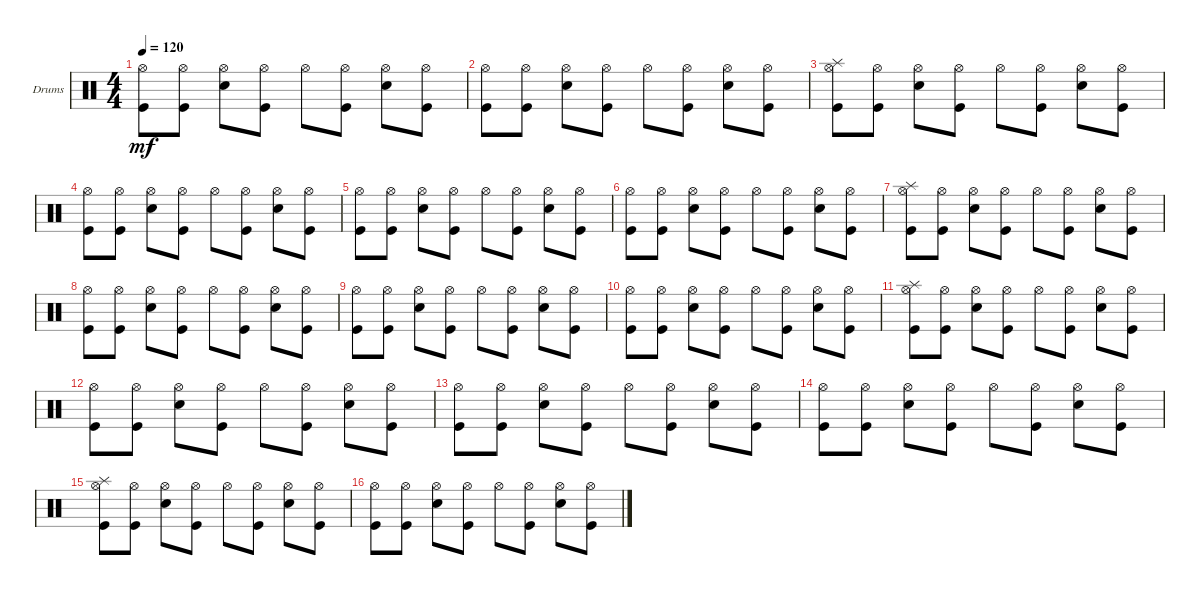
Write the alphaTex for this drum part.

\defaultSystemsLayout 4
\bracketExtendMode groupsimilarinstruments
\firstSystemTrackNameOrientation horizontal
\otherSystemsTrackNameOrientation horizontal
\track ("Drumkit" "Drums") {instrument percussion}
\staff {score}
\articulation defaults
\ts (4 4)
\tempo 120
\clef neutral
\ks c
("Hi-Hat (open)" "Kick (hit)").8{dy mf} ("Hi-Hat (open)" "Kick (hit)").8 ("Hi-Hat (open)" "Snare (hit) 2").8 ("Hi-Hat (open)" "Kick (hit)").8 "Hi-Hat (open)".8 ("Hi-Hat (open)" "Kick (hit)").8 ("Hi-Hat (open)" "Snare (hit) 2").8 ("Hi-Hat (open)" "Kick (hit)").8 |
("Hi-Hat (open)" "Kick (hit)").8 ("Hi-Hat (open)" "Kick (hit)").8 ("Hi-Hat (open)" "Snare (hit) 2").8 ("Hi-Hat (open)" "Kick (hit)").8 "Hi-Hat (open)".8 ("Hi-Hat (open)" "Kick (hit)").8 ("Hi-Hat (open)" "Snare (hit) 2").8 ("Hi-Hat (open)" "Kick (hit)").8 |
("Hi-Hat (open)" "Kick (hit)" "Splash (hit)").8 ("Hi-Hat (open)" "Kick (hit)").8 ("Hi-Hat (open)" "Snare (hit) 2").8 ("Hi-Hat (open)" "Kick (hit)").8 "Hi-Hat (open)".8 ("Hi-Hat (open)" "Kick (hit)").8 ("Hi-Hat (open)" "Snare (hit) 2").8 ("Hi-Hat (open)" "Kick (hit)").8 |
("Hi-Hat (open)" "Kick (hit)").8 ("Hi-Hat (open)" "Kick (hit)").8 ("Hi-Hat (open)" "Snare (hit) 2").8 ("Hi-Hat (open)" "Kick (hit)").8 "Hi-Hat (open)".8 ("Hi-Hat (open)" "Kick (hit)").8 ("Hi-Hat (open)" "Snare (hit) 2").8 ("Hi-Hat (open)" "Kick (hit)").8 |
("Hi-Hat (open)" "Kick (hit)").8 ("Hi-Hat (open)" "Kick (hit)").8 ("Hi-Hat (open)" "Snare (hit) 2").8 ("Hi-Hat (open)" "Kick (hit)").8 "Hi-Hat (open)".8 ("Hi-Hat (open)" "Kick (hit)").8 ("Hi-Hat (open)" "Snare (hit) 2").8 ("Hi-Hat (open)" "Kick (hit)").8 |
("Hi-Hat (open)" "Kick (hit)").8 ("Hi-Hat (open)" "Kick (hit)").8 ("Hi-Hat (open)" "Snare (hit) 2").8 ("Hi-Hat (open)" "Kick (hit)").8 "Hi-Hat (open)".8 ("Hi-Hat (open)" "Kick (hit)").8 ("Hi-Hat (open)" "Snare (hit) 2").8 ("Hi-Hat (open)" "Kick (hit)").8 |
("Hi-Hat (open)" "Kick (hit)" "Splash (hit)").8 ("Hi-Hat (open)" "Kick (hit)").8 ("Hi-Hat (open)" "Snare (hit) 2").8 ("Hi-Hat (open)" "Kick (hit)").8 "Hi-Hat (open)".8 ("Hi-Hat (open)" "Kick (hit)").8 ("Hi-Hat (open)" "Snare (hit) 2").8 ("Hi-Hat (open)" "Kick (hit)").8 |
("Hi-Hat (open)" "Kick (hit)").8 ("Hi-Hat (open)" "Kick (hit)").8 ("Hi-Hat (open)" "Snare (hit) 2").8 ("Hi-Hat (open)" "Kick (hit)").8 "Hi-Hat (open)".8 ("Hi-Hat (open)" "Kick (hit)").8 ("Hi-Hat (open)" "Snare (hit) 2").8 ("Hi-Hat (open)" "Kick (hit)").8 |
("Hi-Hat (open)" "Kick (hit)").8 ("Hi-Hat (open)" "Kick (hit)").8 ("Hi-Hat (open)" "Snare (hit) 2").8 ("Hi-Hat (open)" "Kick (hit)").8 "Hi-Hat (open)".8 ("Hi-Hat (open)" "Kick (hit)").8 ("Hi-Hat (open)" "Snare (hit) 2").8 ("Hi-Hat (open)" "Kick (hit)").8 |
("Hi-Hat (open)" "Kick (hit)").8 ("Hi-Hat (open)" "Kick (hit)").8 ("Hi-Hat (open)" "Snare (hit) 2").8 ("Hi-Hat (open)" "Kick (hit)").8 "Hi-Hat (open)".8 ("Hi-Hat (open)" "Kick (hit)").8 ("Hi-Hat (open)" "Snare (hit) 2").8 ("Hi-Hat (open)" "Kick (hit)").8 |
("Hi-Hat (open)" "Kick (hit)" "Splash (hit)").8 ("Hi-Hat (open)" "Kick (hit)").8 ("Hi-Hat (open)" "Snare (hit) 2").8 ("Hi-Hat (open)" "Kick (hit)").8 "Hi-Hat (open)".8 ("Hi-Hat (open)" "Kick (hit)").8 ("Hi-Hat (open)" "Snare (hit) 2").8 ("Hi-Hat (open)" "Kick (hit)").8 |
("Hi-Hat (open)" "Kick (hit)").8 ("Hi-Hat (open)" "Kick (hit)").8 ("Hi-Hat (open)" "Snare (hit) 2").8 ("Hi-Hat (open)" "Kick (hit)").8 "Hi-Hat (open)".8 ("Hi-Hat (open)" "Kick (hit)").8 ("Hi-Hat (open)" "Snare (hit) 2").8 ("Hi-Hat (open)" "Kick (hit)").8 |
("Hi-Hat (open)" "Kick (hit)").8 ("Hi-Hat (open)" "Kick (hit)").8 ("Hi-Hat (open)" "Snare (hit) 2").8 ("Hi-Hat (open)" "Kick (hit)").8 "Hi-Hat (open)".8 ("Hi-Hat (open)" "Kick (hit)").8 ("Hi-Hat (open)" "Snare (hit) 2").8 ("Hi-Hat (open)" "Kick (hit)").8 |
("Hi-Hat (open)" "Kick (hit)").8 ("Hi-Hat (open)" "Kick (hit)").8 ("Hi-Hat (open)" "Snare (hit) 2").8 ("Hi-Hat (open)" "Kick (hit)").8 "Hi-Hat (open)".8 ("Hi-Hat (open)" "Kick (hit)").8 ("Hi-Hat (open)" "Snare (hit) 2").8 ("Hi-Hat (open)" "Kick (hit)").8 |
("Hi-Hat (open)" "Kick (hit)" "Splash (hit)").8 ("Hi-Hat (open)" "Kick (hit)").8 ("Hi-Hat (open)" "Snare (hit) 2").8 ("Hi-Hat (open)" "Kick (hit)").8 "Hi-Hat (open)".8 ("Hi-Hat (open)" "Kick (hit)").8 ("Hi-Hat (open)" "Snare (hit) 2").8 ("Hi-Hat (open)" "Kick (hit)").8 |
("Hi-Hat (open)" "Kick (hit)").8 ("Hi-Hat (open)" "Kick (hit)").8 ("Hi-Hat (open)" "Snare (hit) 2").8 ("Hi-Hat (open)" "Kick (hit)").8 "Hi-Hat (open)".8 ("Hi-Hat (open)" "Kick (hit)").8 ("Hi-Hat (open)" "Snare (hit) 2").8 ("Hi-Hat (open)" "Kick (hit)").8
